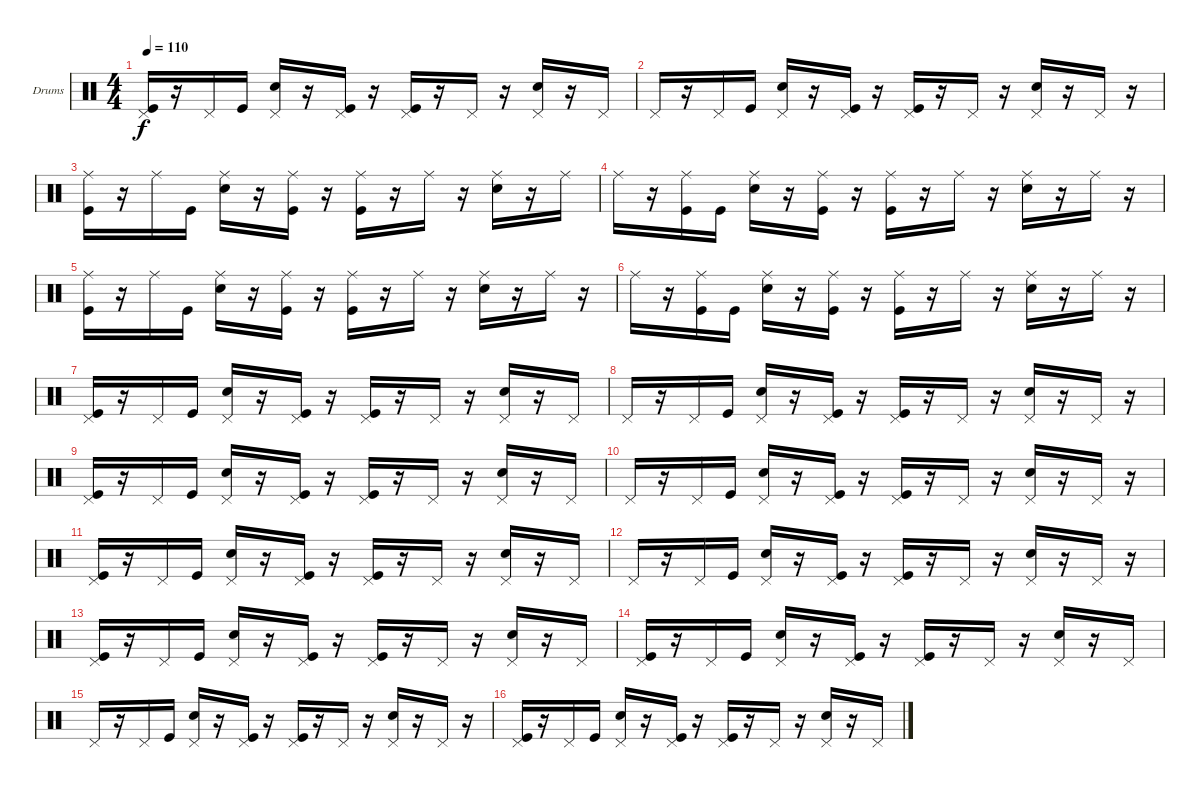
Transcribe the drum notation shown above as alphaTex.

\defaultSystemsLayout 4
\bracketExtendMode groupsimilarinstruments
\firstSystemTrackNameOrientation horizontal
\otherSystemsTrackNameOrientation horizontal
\track ("Drumkit" "Drums") {instrument percussion}
\staff {score}
\articulation defaults
\ts (4 4)
\tempo 110
\clef neutral
\ks c
("Kick (hit)" "Pedal Hi-Hat (hit)").16{dy f} r.16 "Pedal Hi-Hat (hit)".16 "Kick (hit)".16 ("Snare (hit) 2" "Pedal Hi-Hat (hit)").16 r.16 ("Kick (hit)" "Pedal Hi-Hat (hit)").16 r.16 ("Kick (hit)" "Pedal Hi-Hat (hit)").16 r.16 "Pedal Hi-Hat (hit)".16 r.16 ("Snare (hit) 2" "Pedal Hi-Hat (hit)").16 r.16 "Pedal Hi-Hat (hit)".16 |
"Pedal Hi-Hat (hit)".16 r.16 "Pedal Hi-Hat (hit)".16 "Kick (hit)".16 ("Snare (hit) 2" "Pedal Hi-Hat (hit)").16 r.16 ("Kick (hit)" "Pedal Hi-Hat (hit)").16 r.16 ("Kick (hit)" "Pedal Hi-Hat (hit)").16 r.16 "Pedal Hi-Hat (hit)".16 r.16 ("Snare (hit) 2" "Pedal Hi-Hat (hit)").16 r.16 "Pedal Hi-Hat (hit)".16 r.16 |
("Kick (hit)" "Ride (middle)").16 r.16 "Ride (middle)".16 "Kick (hit)".16 ("Snare (hit) 2" "Ride (middle)").16 r.16 ("Kick (hit)" "Ride (middle)").16 r.16 ("Kick (hit)" "Ride (middle)").16 r.16 "Ride (middle)".16 r.16 ("Ride (middle)" "Snare (hit) 2").16 r.16 "Ride (middle)".16 |
"Ride (middle)".16 r.16 ("Ride (middle)" "Kick (hit)").16 "Kick (hit)".16 ("Ride (middle)" "Snare (hit) 2").16 r.16 ("Ride (middle)" "Kick (hit)").16 r.16 ("Ride (middle)" "Kick (hit)").16 r.16 "Ride (middle)".16 r.16 ("Ride (middle)" "Snare (hit) 2").16 r.16 "Ride (middle)".16 r.16 |
("Kick (hit)" "Ride (middle)").16 r.16 "Ride (middle)".16 "Kick (hit)".16 ("Snare (hit) 2" "Ride (middle)").16 r.16 ("Kick (hit)" "Ride (middle)").16 r.16 ("Kick (hit)" "Ride (middle)").16 r.16 "Ride (middle)".16 r.16 ("Ride (middle)" "Snare (hit) 2").16 r.16 "Ride (middle)".16 r.16 |
"Ride (middle)".16 r.16 ("Ride (middle)" "Kick (hit)").16 "Kick (hit)".16 ("Ride (middle)" "Snare (hit) 2").16 r.16 ("Ride (middle)" "Kick (hit)").16 r.16 ("Ride (middle)" "Kick (hit)").16 r.16 "Ride (middle)".16 r.16 ("Ride (middle)" "Snare (hit) 2").16 r.16 "Ride (middle)".16 r.16 |
("Kick (hit)" "Pedal Hi-Hat (hit)").16 r.16 "Pedal Hi-Hat (hit)".16 "Kick (hit)".16 ("Snare (hit) 2" "Pedal Hi-Hat (hit)").16 r.16 ("Kick (hit)" "Pedal Hi-Hat (hit)").16 r.16 ("Kick (hit)" "Pedal Hi-Hat (hit)").16 r.16 "Pedal Hi-Hat (hit)".16 r.16 ("Snare (hit) 2" "Pedal Hi-Hat (hit)").16 r.16 "Pedal Hi-Hat (hit)".16 |
"Pedal Hi-Hat (hit)".16 r.16 "Pedal Hi-Hat (hit)".16 "Kick (hit)".16 ("Snare (hit) 2" "Pedal Hi-Hat (hit)").16 r.16 ("Kick (hit)" "Pedal Hi-Hat (hit)").16 r.16 ("Kick (hit)" "Pedal Hi-Hat (hit)").16 r.16 "Pedal Hi-Hat (hit)".16 r.16 ("Snare (hit) 2" "Pedal Hi-Hat (hit)").16 r.16 "Pedal Hi-Hat (hit)".16 r.16 |
("Kick (hit)" "Pedal Hi-Hat (hit)").16 r.16 "Pedal Hi-Hat (hit)".16 "Kick (hit)".16 ("Snare (hit) 2" "Pedal Hi-Hat (hit)").16 r.16 ("Kick (hit)" "Pedal Hi-Hat (hit)").16 r.16 ("Kick (hit)" "Pedal Hi-Hat (hit)").16 r.16 "Pedal Hi-Hat (hit)".16 r.16 ("Snare (hit) 2" "Pedal Hi-Hat (hit)").16 r.16 "Pedal Hi-Hat (hit)".16 |
"Pedal Hi-Hat (hit)".16 r.16 "Pedal Hi-Hat (hit)".16 "Kick (hit)".16 ("Snare (hit) 2" "Pedal Hi-Hat (hit)").16 r.16 ("Kick (hit)" "Pedal Hi-Hat (hit)").16 r.16 ("Kick (hit)" "Pedal Hi-Hat (hit)").16 r.16 "Pedal Hi-Hat (hit)".16 r.16 ("Snare (hit) 2" "Pedal Hi-Hat (hit)").16 r.16 "Pedal Hi-Hat (hit)".16 r.16 |
("Kick (hit)" "Pedal Hi-Hat (hit)").16 r.16 "Pedal Hi-Hat (hit)".16 "Kick (hit)".16 ("Snare (hit) 2" "Pedal Hi-Hat (hit)").16 r.16 ("Kick (hit)" "Pedal Hi-Hat (hit)").16 r.16 ("Kick (hit)" "Pedal Hi-Hat (hit)").16 r.16 "Pedal Hi-Hat (hit)".16 r.16 ("Snare (hit) 2" "Pedal Hi-Hat (hit)").16 r.16 "Pedal Hi-Hat (hit)".16 |
"Pedal Hi-Hat (hit)".16 r.16 "Pedal Hi-Hat (hit)".16 "Kick (hit)".16 ("Snare (hit) 2" "Pedal Hi-Hat (hit)").16 r.16 ("Kick (hit)" "Pedal Hi-Hat (hit)").16 r.16 ("Kick (hit)" "Pedal Hi-Hat (hit)").16 r.16 "Pedal Hi-Hat (hit)".16 r.16 ("Snare (hit) 2" "Pedal Hi-Hat (hit)").16 r.16 "Pedal Hi-Hat (hit)".16 r.16 |
("Kick (hit)" "Pedal Hi-Hat (hit)").16 r.16 "Pedal Hi-Hat (hit)".16 "Kick (hit)".16 ("Snare (hit) 2" "Pedal Hi-Hat (hit)").16 r.16 ("Kick (hit)" "Pedal Hi-Hat (hit)").16 r.16 ("Kick (hit)" "Pedal Hi-Hat (hit)").16 r.16 "Pedal Hi-Hat (hit)".16 r.16 ("Snare (hit) 2" "Pedal Hi-Hat (hit)").16 r.16 "Pedal Hi-Hat (hit)".16 |
("Kick (hit)" "Pedal Hi-Hat (hit)").16 r.16 "Pedal Hi-Hat (hit)".16 "Kick (hit)".16 ("Snare (hit) 2" "Pedal Hi-Hat (hit)").16 r.16 ("Kick (hit)" "Pedal Hi-Hat (hit)").16 r.16 ("Kick (hit)" "Pedal Hi-Hat (hit)").16 r.16 "Pedal Hi-Hat (hit)".16 r.16 ("Snare (hit) 2" "Pedal Hi-Hat (hit)").16 r.16 "Pedal Hi-Hat (hit)".16 |
"Pedal Hi-Hat (hit)".16 r.16 "Pedal Hi-Hat (hit)".16 "Kick (hit)".16 ("Snare (hit) 2" "Pedal Hi-Hat (hit)").16 r.16 ("Kick (hit)" "Pedal Hi-Hat (hit)").16 r.16 ("Kick (hit)" "Pedal Hi-Hat (hit)").16 r.16 "Pedal Hi-Hat (hit)".16 r.16 ("Snare (hit) 2" "Pedal Hi-Hat (hit)").16 r.16 "Pedal Hi-Hat (hit)".16 r.16 |
("Kick (hit)" "Pedal Hi-Hat (hit)").16 r.16 "Pedal Hi-Hat (hit)".16 "Kick (hit)".16 ("Snare (hit) 2" "Pedal Hi-Hat (hit)").16 r.16 ("Kick (hit)" "Pedal Hi-Hat (hit)").16 r.16 ("Kick (hit)" "Pedal Hi-Hat (hit)").16 r.16 "Pedal Hi-Hat (hit)".16 r.16 ("Snare (hit) 2" "Pedal Hi-Hat (hit)").16 r.16 "Pedal Hi-Hat (hit)".16
